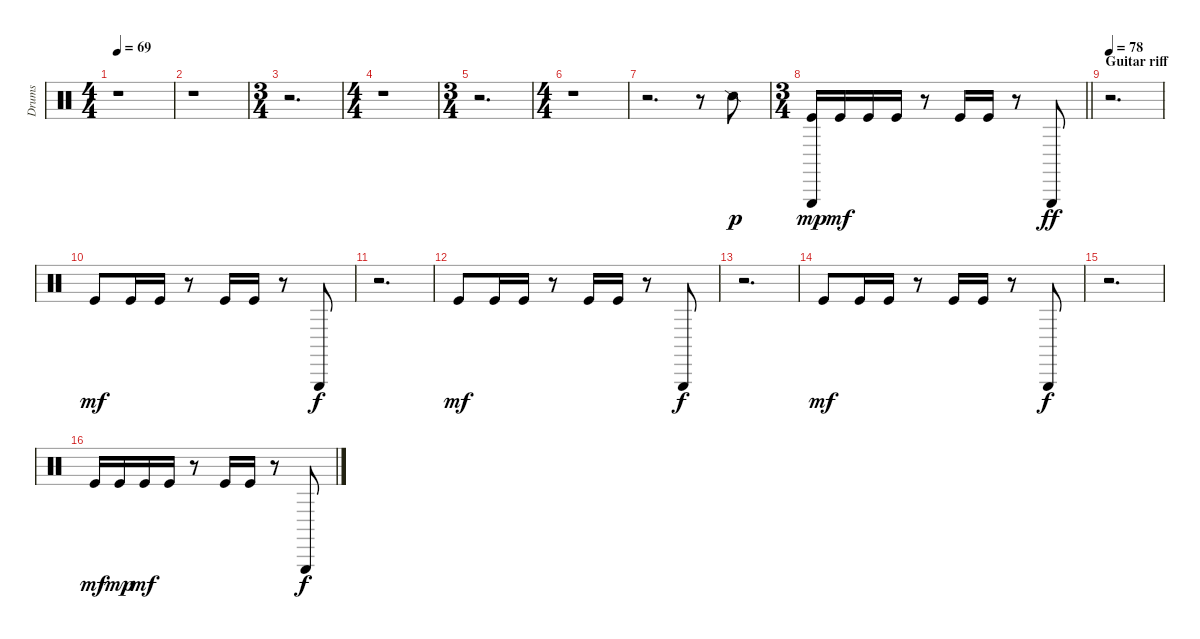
\track ("Drums" "Drums") {instrument percussion}
\staff {score}
\articulation defaults
\ts (4 4)
\tempo 69
\clef neutral
\ks c
r.1{dy p} |
r.1 |
\ts (3 4)
r.2{d} |
\ts (4 4)
r.1 |
\ts (3 4)
r.2{d} |
\ts (4 4)
r.1 |
r.2{d} r.8 "Snare (side stick) 2".8 |
\ts (3 4)
\barLineRight lightlight
("Kick (hit)" "Triangle (hit)").16{dy mp} "Kick (hit)".16{dy mf} "Kick (hit)".16 "Kick (hit)".16 r.8 "Kick (hit)".16 "Kick (hit)".16 r.8 "Triangle (hit)".8{dy ff} |
\section ("" "Guitar riff")
\tempo 78
r.2{d} |
"Kick (hit)".8{dy mf} "Kick (hit)".16 "Kick (hit)".16 r.8 "Kick (hit)".16 "Kick (hit)".16 r.8 "Triangle (hit)".8{dy f} |
r.2{d} |
"Kick (hit)".8{dy mf} "Kick (hit)".16 "Kick (hit)".16 r.8 "Kick (hit)".16 "Kick (hit)".16 r.8 "Triangle (hit)".8{dy f} |
r.2{d} |
"Kick (hit)".8{dy mf} "Kick (hit)".16 "Kick (hit)".16 r.8 "Kick (hit)".16 "Kick (hit)".16 r.8 "Triangle (hit)".8{dy f} |
r.2{d} |
"Kick (hit)".16{dy mf} "Kick (hit)".16{dy mp} "Kick (hit)".16{dy mf} "Kick (hit)".16 r.8 "Kick (hit)".16 "Kick (hit)".16 r.8 "Triangle (hit)".8{dy f}
